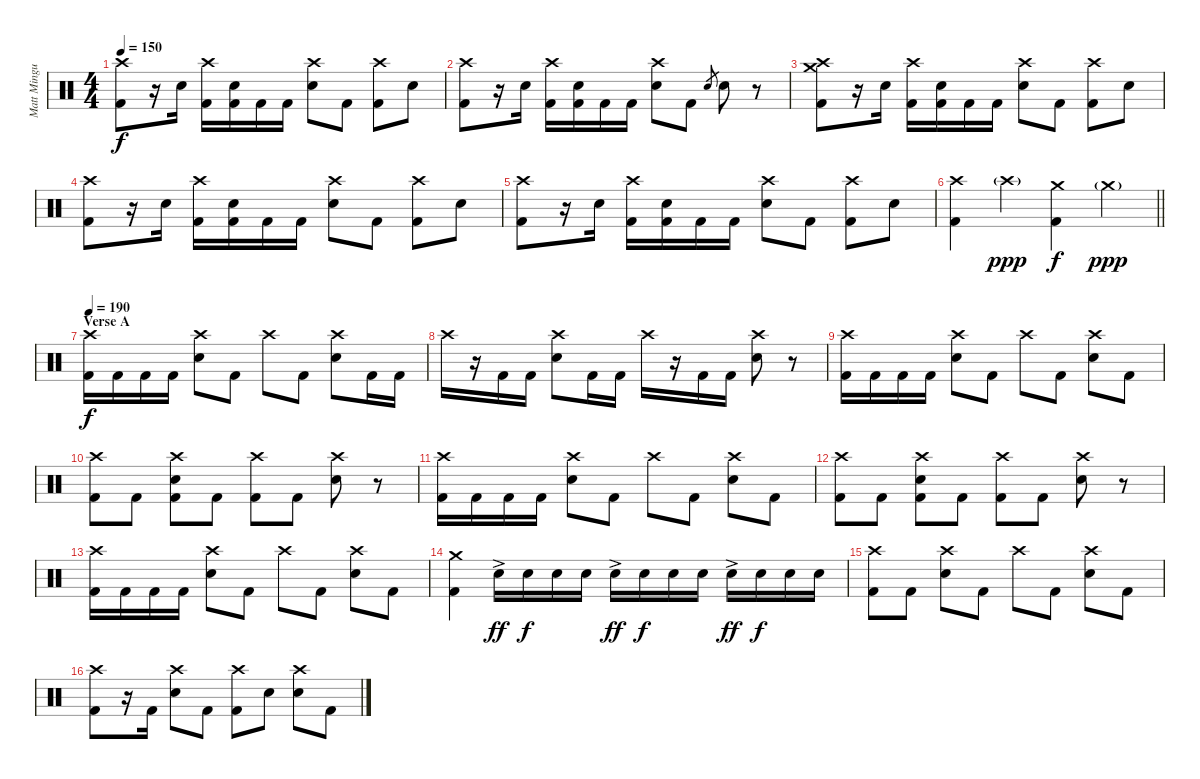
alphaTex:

\track ("Matt Mingus (Drums)" "Matt Mingu") {instrument percussion}
\staff {score}
\articulation defaults
\ts (4 4)
\tempo 150
\clef neutral
\ks c
("Crash high (hit)" "Kick (hit) 2").8{dy f} r.16 "Electric Snare (hit)".16 ("Crash high (hit)" "Kick (hit) 2").16 ("Electric Snare (hit)" "Kick (hit) 2").16 "Kick (hit) 2".16 "Kick (hit) 2".16 ("Crash high (hit)" "Electric Snare (hit)").8 "Kick (hit) 2".8 ("Crash high (hit)" "Kick (hit) 2").8 "Electric Snare (hit)".8 |
("Crash high (hit)" "Kick (hit) 2").8 r.16 "Electric Snare (hit)".16 ("Crash high (hit)" "Kick (hit) 2").16 ("Electric Snare (hit)" "Kick (hit) 2").16 "Kick (hit) 2".16 "Kick (hit) 2".16 ("Crash high (hit)" "Electric Snare (hit)").8 "Kick (hit) 2".8 "Electric Snare (hit)".8{gr} "Electric Snare (hit)".8 r.8 |
("Crash medium (hit)" "Crash high (hit)" "Kick (hit) 2").8 r.16 "Electric Snare (hit)".16 ("Crash high (hit)" "Kick (hit) 2").16 ("Electric Snare (hit)" "Kick (hit) 2").16 "Kick (hit) 2".16 "Kick (hit) 2".16 ("Crash high (hit)" "Electric Snare (hit)").8 "Kick (hit) 2".8 ("Crash high (hit)" "Kick (hit) 2").8 "Electric Snare (hit)".8 |
("Crash high (hit)" "Kick (hit) 2").8 r.16 "Electric Snare (hit)".16 ("Crash high (hit)" "Kick (hit) 2").16 ("Electric Snare (hit)" "Kick (hit) 2").16 "Kick (hit) 2".16 "Kick (hit) 2".16 ("Crash high (hit)" "Electric Snare (hit)").8 "Kick (hit) 2".8 ("Crash high (hit)" "Kick (hit) 2").8 "Electric Snare (hit)".8 |
("Crash high (hit)" "Kick (hit) 2").8 r.16 "Electric Snare (hit)".16 ("Crash high (hit)" "Kick (hit) 2").16 ("Electric Snare (hit)" "Kick (hit) 2").16 "Kick (hit) 2".16 "Kick (hit) 2".16 ("Crash high (hit)" "Electric Snare (hit)").8 "Kick (hit) 2".8 ("Crash high (hit)" "Kick (hit) 2").8 "Electric Snare (hit)".8 |
\barLineRight lightlight
("Crash high (hit)" "Kick (hit) 2").4 "Crash high (hit)"{g}.4{dy ppp} ("Crash medium (hit)" "Kick (hit) 2").4{dy f} "Crash medium (hit)"{g}.4{dy ppp} |
\section ("" "Verse A")
\tempo 190
("Crash high (hit)" "Kick (hit) 2").16{dy f} "Kick (hit) 2".16 "Kick (hit) 2".16 "Kick (hit) 2".16 ("Crash high (hit)" "Electric Snare (hit)").8 "Kick (hit) 2".8 "Crash high (hit)".8 "Kick (hit) 2".8 ("Crash high (hit)" "Electric Snare (hit)").8 "Kick (hit) 2".16 "Kick (hit) 2".16 |
"Crash high (hit)".16 r.16 "Kick (hit) 2".16 "Kick (hit) 2".16 ("Crash high (hit)" "Electric Snare (hit)").8 "Kick (hit) 2".16 "Kick (hit) 2".16 "Crash high (hit)".16 r.16 "Kick (hit) 2".16 "Kick (hit) 2".16 ("Crash high (hit)" "Electric Snare (hit)").8 r.8 |
("Crash high (hit)" "Kick (hit) 2").16 "Kick (hit) 2".16 "Kick (hit) 2".16 "Kick (hit) 2".16 ("Crash high (hit)" "Electric Snare (hit)").8 "Kick (hit) 2".8 "Crash high (hit)".8 "Kick (hit) 2".8 ("Crash high (hit)" "Electric Snare (hit)").8 "Kick (hit) 2".8 |
("Crash high (hit)" "Kick (hit) 2").8 "Kick (hit) 2".8 ("Crash high (hit)" "Electric Snare (hit)" "Kick (hit) 2").8 "Kick (hit) 2".8 ("Crash high (hit)" "Kick (hit) 2").8 "Kick (hit) 2".8 ("Crash high (hit)" "Electric Snare (hit)").8 r.8 |
("Crash high (hit)" "Kick (hit) 2").16 "Kick (hit) 2".16 "Kick (hit) 2".16 "Kick (hit) 2".16 ("Crash high (hit)" "Electric Snare (hit)").8 "Kick (hit) 2".8 "Crash high (hit)".8 "Kick (hit) 2".8 ("Crash high (hit)" "Electric Snare (hit)").8 "Kick (hit) 2".8 |
("Crash high (hit)" "Kick (hit) 2").8 "Kick (hit) 2".8 ("Crash high (hit)" "Electric Snare (hit)" "Kick (hit) 2").8 "Kick (hit) 2".8 ("Crash high (hit)" "Kick (hit) 2").8 "Kick (hit) 2".8 ("Crash high (hit)" "Electric Snare (hit)").8 r.8 |
("Crash high (hit)" "Kick (hit) 2").16 "Kick (hit) 2".16 "Kick (hit) 2".16 "Kick (hit) 2".16 ("Crash high (hit)" "Electric Snare (hit)").8 "Kick (hit) 2".8 "Crash high (hit)".8 "Kick (hit) 2".8 ("Crash high (hit)" "Electric Snare (hit)").8 "Kick (hit) 2".8 |
("Crash medium (hit)" "Kick (hit) 2").4 "Electric Snare (hit)"{ac}.16{dy ff} "Electric Snare (hit)".16{dy f} "Electric Snare (hit)".16 "Electric Snare (hit)".16 "Electric Snare (hit)"{ac}.16{dy ff} "Electric Snare (hit)".16{dy f} "Electric Snare (hit)".16 "Electric Snare (hit)".16 "Electric Snare (hit)"{ac}.16{dy ff} "Electric Snare (hit)".16{dy f} "Electric Snare (hit)".16 "Electric Snare (hit)".16 |
("Crash high (hit)" "Kick (hit) 2").8 "Kick (hit) 2".8 ("Crash high (hit)" "Electric Snare (hit)").8 "Kick (hit) 2".8 "Crash high (hit)".8 "Kick (hit) 2".8 ("Crash high (hit)" "Electric Snare (hit)").8 "Kick (hit) 2".8 |
("Crash high (hit)" "Kick (hit) 2").8 r.16 "Kick (hit) 2".16 ("Crash high (hit)" "Electric Snare (hit)").8 "Kick (hit) 2".8 ("Crash high (hit)" "Kick (hit) 2").8 "Electric Snare (hit)".8 ("Crash high (hit)" "Electric Snare (hit)").8 "Kick (hit) 2".8
